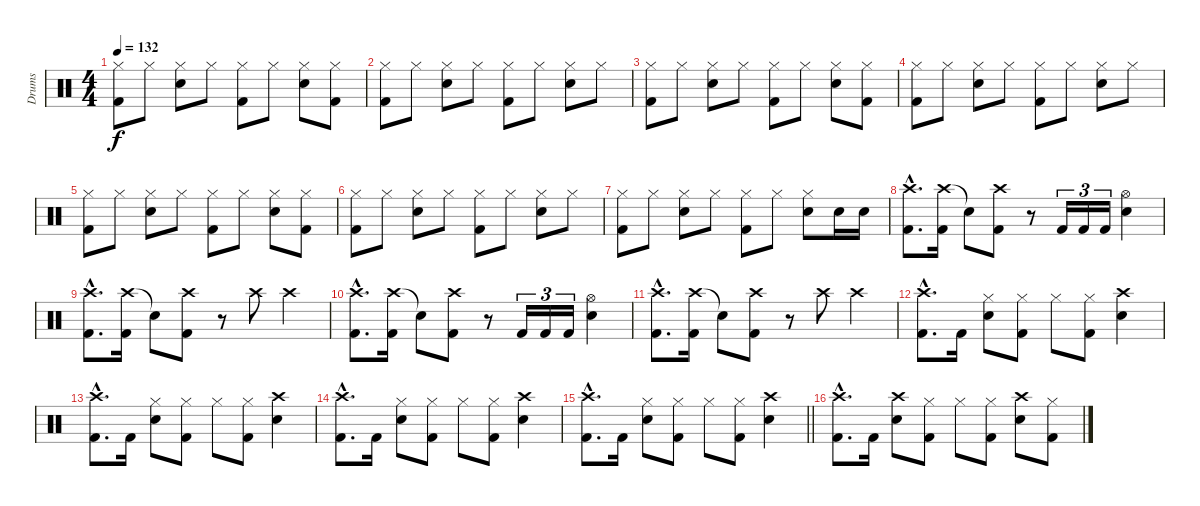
\track ("Drums" "Drums") {instrument percussion}
\staff {score}
\articulation defaults
\ts (4 4)
\tempo 132
\clef neutral
\ks c
("Hi-Hat (closed)" "Kick (hit) 2").8{dy f} "Hi-Hat (closed)".8 ("Hi-Hat (closed)" "Snare (hit) 2").8 "Hi-Hat (closed)".8 ("Hi-Hat (closed)" "Kick (hit) 2").8 "Hi-Hat (closed)".8 ("Hi-Hat (closed)" "Snare (hit) 2").8 ("Hi-Hat (closed)" "Kick (hit) 2").8 |
("Hi-Hat (closed)" "Kick (hit) 2").8 "Hi-Hat (closed)".8 ("Hi-Hat (closed)" "Snare (hit) 2").8 "Hi-Hat (closed)".8 ("Hi-Hat (closed)" "Kick (hit) 2").8 "Hi-Hat (closed)".8 ("Hi-Hat (closed)" "Snare (hit) 2").8 "Hi-Hat (closed)".8 |
("Hi-Hat (closed)" "Kick (hit) 2").8 "Hi-Hat (closed)".8 ("Hi-Hat (closed)" "Snare (hit) 2").8 "Hi-Hat (closed)".8 ("Hi-Hat (closed)" "Kick (hit) 2").8 "Hi-Hat (closed)".8 ("Hi-Hat (closed)" "Snare (hit) 2").8 ("Hi-Hat (closed)" "Kick (hit) 2").8 |
("Hi-Hat (closed)" "Kick (hit) 2").8 "Hi-Hat (closed)".8 ("Hi-Hat (closed)" "Snare (hit) 2").8 "Hi-Hat (closed)".8 ("Hi-Hat (closed)" "Kick (hit) 2").8 "Hi-Hat (closed)".8 ("Hi-Hat (closed)" "Snare (hit) 2").8 "Hi-Hat (closed)".8 |
("Hi-Hat (closed)" "Kick (hit) 2").8 "Hi-Hat (closed)".8 ("Hi-Hat (closed)" "Snare (hit) 2").8 "Hi-Hat (closed)".8 ("Hi-Hat (closed)" "Kick (hit) 2").8 "Hi-Hat (closed)".8 ("Hi-Hat (closed)" "Snare (hit) 2").8 ("Hi-Hat (closed)" "Kick (hit) 2").8 |
("Hi-Hat (closed)" "Kick (hit) 2").8 "Hi-Hat (closed)".8 ("Hi-Hat (closed)" "Snare (hit) 2").8 "Hi-Hat (closed)".8 ("Hi-Hat (closed)" "Kick (hit) 2").8 "Hi-Hat (closed)".8 ("Hi-Hat (closed)" "Snare (hit) 2").8 "Hi-Hat (closed)".8 |
("Hi-Hat (closed)" "Kick (hit) 2").8 "Hi-Hat (closed)".8 ("Hi-Hat (closed)" "Snare (hit) 2").8 "Hi-Hat (closed)".8 ("Hi-Hat (closed)" "Kick (hit) 2").8 "Hi-Hat (closed)".8 ("Hi-Hat (closed)" "Snare (hit) 2").8 "Snare (hit) 2".16 "Snare (hit) 2".16 |
("Crash high (hit)"{hac} "Kick (hit) 2"{hac}).8{d} ("Crash high (hit)" "Kick (hit) 2").16 "Snare (hit)"{t}.8 ("Crash high (hit)" "Kick (hit) 2").8 r.8 "Kick (hit) 2".16{tu (3 2)} "Kick (hit) 2".16{tu (3 2)} "Kick (hit) 2".16{tu (3 2)} ("Hi-Hat (open)" "Snare (hit) 2").4 |
("Crash high (hit)"{hac} "Kick (hit) 2"{hac}).8{d} ("Crash high (hit)" "Kick (hit) 2").16 "Snare (hit)"{t}.8 ("Crash high (hit)" "Kick (hit) 2").8 r.8 "Crash high (hit)".8 "Crash high (hit)".4 |
("Crash high (hit)"{hac} "Kick (hit) 2"{hac}).8{d} ("Crash high (hit)" "Kick (hit) 2").16 "Snare (hit)"{t}.8 ("Crash high (hit)" "Kick (hit) 2").8 r.8 "Kick (hit) 2".16{tu (3 2)} "Kick (hit) 2".16{tu (3 2)} "Kick (hit) 2".16{tu (3 2)} ("Hi-Hat (open)" "Snare (hit) 2").4 |
("Crash high (hit)"{hac} "Kick (hit) 2"{hac}).8{d} ("Crash high (hit)" "Kick (hit) 2").16 "Snare (hit)"{t}.8 ("Crash high (hit)" "Kick (hit) 2").8 r.8 "Crash high (hit)".8 "Crash high (hit)".4 |
("Crash high (hit)"{hac} "Kick (hit) 2"{hac}).8{d} "Kick (hit) 2".16 ("Hi-Hat (closed)" "Snare (hit) 2").8 ("Hi-Hat (closed)" "Kick (hit) 2").8 "Hi-Hat (closed)".8 ("Hi-Hat (closed)" "Kick (hit) 2").8 ("Crash high (hit)" "Snare (hit) 2").4 |
("Crash high (hit)"{hac} "Kick (hit) 2"{hac}).8{d} "Kick (hit) 2".16 ("Hi-Hat (closed)" "Snare (hit) 2").8 ("Hi-Hat (closed)" "Kick (hit) 2").8 "Hi-Hat (closed)".8 ("Hi-Hat (closed)" "Kick (hit) 2").8 ("Crash high (hit)" "Snare (hit) 2").4 |
("Crash high (hit)"{hac} "Kick (hit) 2"{hac}).8{d} "Kick (hit) 2".16 ("Hi-Hat (closed)" "Snare (hit) 2").8 ("Hi-Hat (closed)" "Kick (hit) 2").8 "Hi-Hat (closed)".8 ("Hi-Hat (closed)" "Kick (hit) 2").8 ("Crash high (hit)" "Snare (hit) 2").4 |
\barLineRight lightlight
("Crash high (hit)"{hac} "Kick (hit) 2"{hac}).8{d} "Kick (hit) 2".16 ("Hi-Hat (closed)" "Snare (hit) 2").8 ("Hi-Hat (closed)" "Kick (hit) 2").8 "Hi-Hat (closed)".8 ("Hi-Hat (closed)" "Kick (hit) 2").8 ("Crash high (hit)" "Snare (hit) 2").4 |
("Crash high (hit)"{hac} "Kick (hit) 2"{hac}).8{d} "Kick (hit) 2".16 ("Crash high (hit)" "Snare (hit) 2").8 ("Hi-Hat (closed)" "Kick (hit) 2").8 "Hi-Hat (closed)".8 ("Hi-Hat (closed)" "Kick (hit) 2").8 ("Crash high (hit)" "Snare (hit) 2").8 ("Hi-Hat (closed)" "Kick (hit) 2").8
